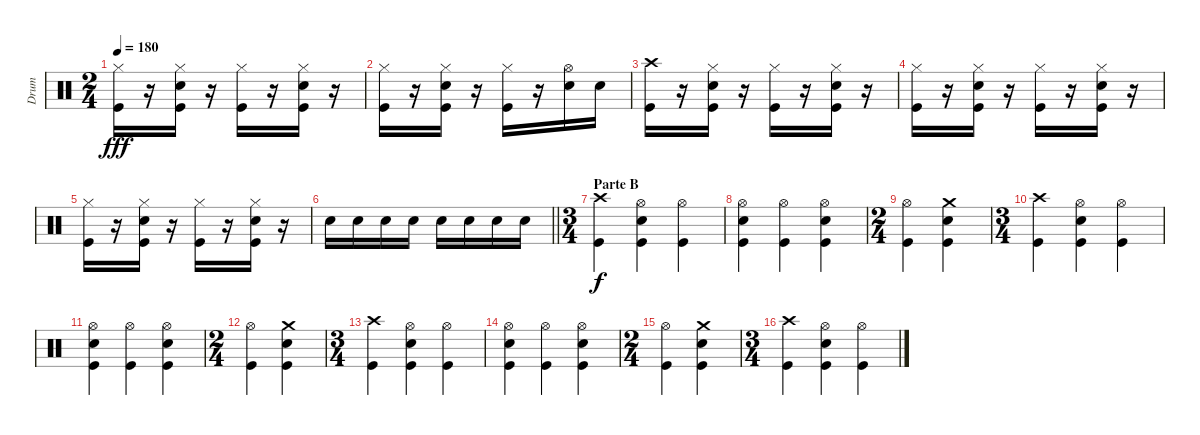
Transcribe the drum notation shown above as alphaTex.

\track ("Drum" "Drum") {instrument percussion}
\staff {score}
\articulation defaults
\ts (2 4)
\tempo 180
\clef neutral
\ks c
("Hi-Hat (closed)" "Kick (hit)").16{dy fff} r.16 ("Hi-Hat (closed)" "Snare (hit) 2" "Kick (hit)").16 r.16 ("Hi-Hat (closed)" "Kick (hit)").16 r.16 ("Hi-Hat (closed)" "Snare (hit) 2" "Kick (hit)").16 r.16 |
("Hi-Hat (closed)" "Kick (hit)").16 r.16 ("Hi-Hat (closed)" "Snare (hit) 2" "Kick (hit)").16 r.16 ("Hi-Hat (closed)" "Kick (hit)").16 r.16 ("Hi-Hat (open)" "Snare (hit) 2").16 "Snare (hit) 2".16 |
("Crash high (hit)" "Kick (hit)").16 r.16 ("Hi-Hat (closed)" "Snare (hit) 2" "Kick (hit)").16 r.16 ("Hi-Hat (closed)" "Kick (hit)").16 r.16 ("Hi-Hat (closed)" "Snare (hit) 2" "Kick (hit)").16 r.16 |
("Hi-Hat (closed)" "Kick (hit)").16 r.16 ("Hi-Hat (closed)" "Snare (hit) 2" "Kick (hit)").16 r.16 ("Hi-Hat (closed)" "Kick (hit)").16 r.16 ("Hi-Hat (closed)" "Snare (hit) 2" "Kick (hit)").16 r.16 |
("Hi-Hat (closed)" "Kick (hit)").16 r.16 ("Hi-Hat (closed)" "Snare (hit) 2" "Kick (hit)").16 r.16 ("Hi-Hat (closed)" "Kick (hit)").16 r.16 ("Hi-Hat (closed)" "Snare (hit) 2" "Kick (hit)").16 r.16 |
\barLineRight lightlight "Snare (hit) 2".16 "Snare (hit) 2".16 "Snare (hit) 2".16 "Snare (hit) 2".16 "Snare (hit) 2".16 "Snare (hit) 2".16 "Snare (hit) 2".16 "Snare (hit) 2".16
|
\ts (3 4)
\section ("" "Parte B")
("Crash high (hit)" "Kick (hit)").4{dy f} ("Hi-Hat (open)" "Snare (hit) 2" "Kick (hit)").4 ("Hi-Hat (open)" "Kick (hit)").4 |
("Hi-Hat (open)" "Snare (hit) 2" "Kick (hit)").4 ("Hi-Hat (open)" "Kick (hit)").4 ("Hi-Hat (open)" "Snare (hit) 2" "Kick (hit)").4 |
\ts (2 4)
("Hi-Hat (open)" "Kick (hit)").4 ("Crash medium (hit)" "Snare (hit) 2" "Kick (hit)").4 |
\ts (3 4)
("Crash high (hit)" "Kick (hit)").4 ("Hi-Hat (open)" "Snare (hit) 2" "Kick (hit)").4 ("Hi-Hat (open)" "Kick (hit)").4 |
("Hi-Hat (open)" "Snare (hit) 2" "Kick (hit)").4 ("Hi-Hat (open)" "Kick (hit)").4 ("Hi-Hat (open)" "Snare (hit) 2" "Kick (hit)").4 |
\ts (2 4)
("Hi-Hat (open)" "Kick (hit)").4 ("Crash medium (hit)" "Snare (hit) 2" "Kick (hit)").4 |
\ts (3 4)
("Crash high (hit)" "Kick (hit)").4 ("Hi-Hat (open)" "Snare (hit) 2" "Kick (hit)").4 ("Hi-Hat (open)" "Kick (hit)").4 |
("Hi-Hat (open)" "Snare (hit) 2" "Kick (hit)").4 ("Hi-Hat (open)" "Kick (hit)").4 ("Hi-Hat (open)" "Snare (hit) 2" "Kick (hit)").4 |
\ts (2 4)
("Hi-Hat (open)" "Kick (hit)").4 ("Crash medium (hit)" "Snare (hit) 2" "Kick (hit)").4 |
\ts (3 4)
("Crash high (hit)" "Kick (hit)").4 ("Hi-Hat (open)" "Snare (hit) 2" "Kick (hit)").4 ("Hi-Hat (open)" "Kick (hit)").4
